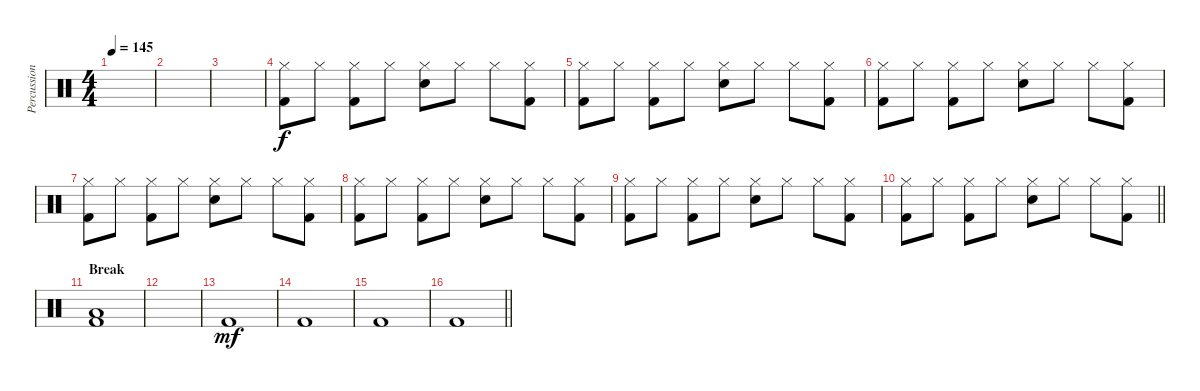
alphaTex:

\track ("Percussion" "Percussion") {instrument percussion}
\staff {score}
\articulation defaults
\ts (4 4)
\tempo 145
\clef neutral
\ks c
|
|
|
("Hi-Hat (closed)" "Kick (hit) 2").8 "Hi-Hat (closed)".8 ("Hi-Hat (closed)" "Kick (hit) 2").8 "Hi-Hat (closed)".8 ("Hi-Hat (closed)" "Electric Snare (hit)").8 "Hi-Hat (closed)".8 "Hi-Hat (closed)".8 ("Hi-Hat (closed)" "Kick (hit) 2").8 |
("Hi-Hat (closed)" "Kick (hit) 2").8 "Hi-Hat (closed)".8 ("Hi-Hat (closed)" "Kick (hit) 2").8 "Hi-Hat (closed)".8 ("Hi-Hat (closed)" "Electric Snare (hit)").8 "Hi-Hat (closed)".8 "Hi-Hat (closed)".8 ("Hi-Hat (closed)" "Kick (hit) 2").8 |
("Hi-Hat (closed)" "Kick (hit) 2").8 "Hi-Hat (closed)".8 ("Hi-Hat (closed)" "Kick (hit) 2").8 "Hi-Hat (closed)".8 ("Hi-Hat (closed)" "Electric Snare (hit)").8 "Hi-Hat (closed)".8 "Hi-Hat (closed)".8 ("Hi-Hat (closed)" "Kick (hit) 2").8 |
("Hi-Hat (closed)" "Kick (hit) 2").8 "Hi-Hat (closed)".8 ("Hi-Hat (closed)" "Kick (hit) 2").8 "Hi-Hat (closed)".8 ("Hi-Hat (closed)" "Electric Snare (hit)").8 "Hi-Hat (closed)".8 "Hi-Hat (closed)".8 ("Hi-Hat (closed)" "Kick (hit) 2").8 |
("Hi-Hat (closed)" "Kick (hit) 2").8 "Hi-Hat (closed)".8 ("Hi-Hat (closed)" "Kick (hit) 2").8 "Hi-Hat (closed)".8 ("Hi-Hat (closed)" "Electric Snare (hit)").8 "Hi-Hat (closed)".8 "Hi-Hat (closed)".8 ("Hi-Hat (closed)" "Kick (hit) 2").8 |
("Hi-Hat (closed)" "Kick (hit) 2").8 "Hi-Hat (closed)".8 ("Hi-Hat (closed)" "Kick (hit) 2").8 "Hi-Hat (closed)".8 ("Hi-Hat (closed)" "Electric Snare (hit)").8 "Hi-Hat (closed)".8 "Hi-Hat (closed)".8 ("Hi-Hat (closed)" "Kick (hit) 2").8 |
\barLineRight lightlight
("Hi-Hat (closed)" "Kick (hit) 2").8 "Hi-Hat (closed)".8 ("Hi-Hat (closed)" "Kick (hit) 2").8 "Hi-Hat (closed)".8 ("Hi-Hat (closed)" "Electric Snare (hit)").8 "Hi-Hat (closed)".8 "Hi-Hat (closed)".8 ("Hi-Hat (closed)" "Kick (hit) 2").8 |
\section ("" "Break")
("Low Floor Tom (hit)" "Kick (hit) 2").1 |
|
"Kick (hit) 2".1{dy mf} |
"Kick (hit) 2".1 |
"Kick (hit) 2".1 |
\barLineRight lightlight "Kick (hit) 2".1
